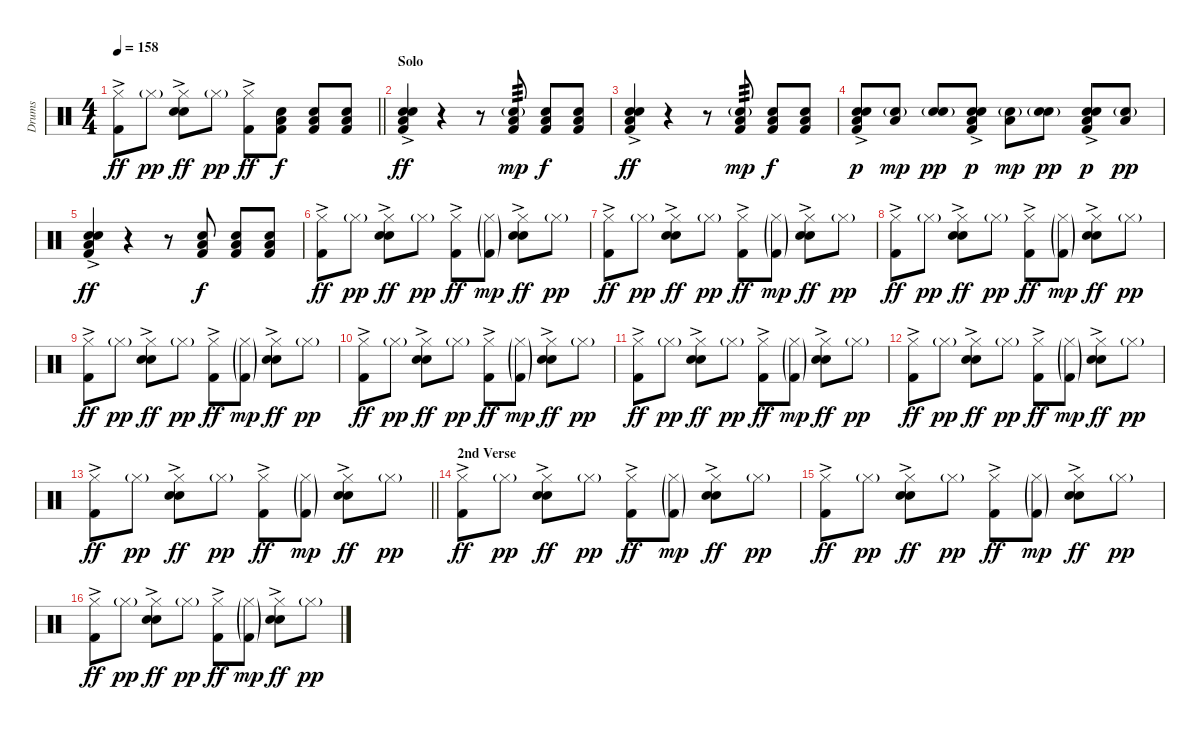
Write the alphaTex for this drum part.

\track ("Drums" "Drums") {instrument percussion}
\staff {score}
\articulation defaults
\ts (4 4)
\tempo 158
\clef neutral
\barLineRight lightlight
\ks c
("Hi-Hat (closed)" "Kick (hit) 2"{ac}).8{dy ff} "Hi-Hat (closed)"{g}.8{dy pp} ("Hi-Hat (closed)" "Electric Snare (hit)"{ac} "Snare (hit) 2").8{dy ff} "Hi-Hat (closed)"{g}.8{dy pp} ("Hi-Hat (closed)" "Kick (hit) 2"{ac}).8{dy ff} ("Low Floor Tom (hit)" "Snare (hit) 2" "Kick (hit) 2").8{dy f} ("Low Floor Tom (hit)" "Snare (hit) 2" "Kick (hit) 2").8 ("Low Floor Tom (hit)" "Snare (hit) 2" "Kick (hit) 2").8 |
\section ("" "Solo")
("Low Floor Tom (hit)" "Electric Snare (hit)"{ac} "Snare (hit) 2" "Kick (hit) 2").4{dy ff} r.4 r.8 ("Low Floor Tom (hit)" "Snare (hit) 2"{g} "Kick (hit) 2").8{tp 3 dy mp} ("Low Floor Tom (hit)" "Snare (hit) 2" "Kick (hit) 2").8{dy f} ("Low Floor Tom (hit)" "Snare (hit) 2" "Kick (hit) 2").8 |
("Low Floor Tom (hit)" "Electric Snare (hit)"{ac} "Snare (hit) 2" "Kick (hit) 2").4{dy ff} r.4 r.8 ("Low Floor Tom (hit)" "Snare (hit) 2"{g} "Kick (hit) 2").8{tp 3 dy mp} ("Low Floor Tom (hit)" "Snare (hit) 2" "Kick (hit) 2").8{dy f} ("Low Floor Tom (hit)" "Snare (hit) 2" "Kick (hit) 2").8 |
("Low Floor Tom (hit)" "Electric Snare (hit)" "Snare (hit) 2" "Kick (hit) 2"{ac}).8{dy p} ("Low Floor Tom (hit)" "Snare (hit) 2"{g}).8{dy mp} ("Electric Snare (hit)" "Snare (hit) 2"{g}).8{dy pp} ("Low Floor Tom (hit)" "Electric Snare (hit)" "Snare (hit) 2" "Kick (hit) 2"{ac}).8{dy p} ("Low Floor Tom (hit)" "Snare (hit) 2"{g}).8{dy mp} ("Electric Snare (hit)" "Snare (hit) 2"{g}).8{dy pp} ("Low Floor Tom (hit)" "Electric Snare (hit)" "Snare (hit) 2" "Kick (hit) 2"{ac}).8{dy p} ("Low Floor Tom (hit)" "Snare (hit) 2"{g}).8{dy pp} |
("Low Floor Tom (hit)" "Electric Snare (hit)"{ac} "Snare (hit) 2" "Kick (hit) 2").4{dy ff} r.4 r.8 ("Low Floor Tom (hit)" "Snare (hit) 2" "Kick (hit) 2").8{dy f} ("Low Floor Tom (hit)" "Snare (hit) 2" "Kick (hit) 2").8 ("Low Floor Tom (hit)" "Snare (hit) 2" "Kick (hit) 2").8 |
("Hi-Hat (closed)" "Kick (hit) 2"{ac}).8{dy ff} "Hi-Hat (closed)"{g}.8{dy pp} ("Hi-Hat (closed)" "Electric Snare (hit)"{ac} "Snare (hit) 2").8{dy ff} "Hi-Hat (closed)"{g}.8{dy pp} ("Hi-Hat (closed)" "Kick (hit) 2"{ac}).8{dy ff} ("Hi-Hat (closed)"{g} "Kick (hit) 2"{g}).8{dy mp} ("Hi-Hat (closed)" "Electric Snare (hit)"{ac} "Snare (hit) 2").8{dy ff} "Hi-Hat (closed)"{g}.8{dy pp} |
("Hi-Hat (closed)" "Kick (hit) 2"{ac}).8{dy ff} "Hi-Hat (closed)"{g}.8{dy pp} ("Hi-Hat (closed)" "Electric Snare (hit)"{ac} "Snare (hit) 2").8{dy ff} "Hi-Hat (closed)"{g}.8{dy pp} ("Hi-Hat (closed)" "Kick (hit) 2"{ac}).8{dy ff} ("Hi-Hat (closed)"{g} "Kick (hit) 2"{g}).8{dy mp} ("Hi-Hat (closed)" "Electric Snare (hit)"{ac} "Snare (hit) 2").8{dy ff} "Hi-Hat (closed)"{g}.8{dy pp} |
("Hi-Hat (closed)" "Kick (hit) 2"{ac}).8{dy ff} "Hi-Hat (closed)"{g}.8{dy pp} ("Hi-Hat (closed)" "Electric Snare (hit)"{ac} "Snare (hit) 2").8{dy ff} "Hi-Hat (closed)"{g}.8{dy pp} ("Hi-Hat (closed)" "Kick (hit) 2"{ac}).8{dy ff} ("Hi-Hat (closed)"{g} "Kick (hit) 2"{g}).8{dy mp} ("Hi-Hat (closed)" "Electric Snare (hit)"{ac} "Snare (hit) 2").8{dy ff} "Hi-Hat (closed)"{g}.8{dy pp} |
("Hi-Hat (closed)" "Kick (hit) 2"{ac}).8{dy ff} "Hi-Hat (closed)"{g}.8{dy pp} ("Hi-Hat (closed)" "Electric Snare (hit)"{ac} "Snare (hit) 2").8{dy ff} "Hi-Hat (closed)"{g}.8{dy pp} ("Hi-Hat (closed)" "Kick (hit) 2"{ac}).8{dy ff} ("Hi-Hat (closed)"{g} "Kick (hit) 2"{g}).8{dy mp} ("Hi-Hat (closed)" "Electric Snare (hit)"{ac} "Snare (hit) 2").8{dy ff} "Hi-Hat (closed)"{g}.8{dy pp} |
("Hi-Hat (closed)" "Kick (hit) 2"{ac}).8{dy ff} "Hi-Hat (closed)"{g}.8{dy pp} ("Hi-Hat (closed)" "Electric Snare (hit)"{ac} "Snare (hit) 2").8{dy ff} "Hi-Hat (closed)"{g}.8{dy pp} ("Hi-Hat (closed)" "Kick (hit) 2"{ac}).8{dy ff} ("Hi-Hat (closed)"{g} "Kick (hit) 2"{g}).8{dy mp} ("Hi-Hat (closed)" "Electric Snare (hit)"{ac} "Snare (hit) 2").8{dy ff} "Hi-Hat (closed)"{g}.8{dy pp} |
("Hi-Hat (closed)" "Kick (hit) 2"{ac}).8{dy ff} "Hi-Hat (closed)"{g}.8{dy pp} ("Hi-Hat (closed)" "Electric Snare (hit)"{ac} "Snare (hit) 2").8{dy ff} "Hi-Hat (closed)"{g}.8{dy pp} ("Hi-Hat (closed)" "Kick (hit) 2"{ac}).8{dy ff} ("Hi-Hat (closed)"{g} "Kick (hit) 2"{g}).8{dy mp} ("Hi-Hat (closed)" "Electric Snare (hit)"{ac} "Snare (hit) 2").8{dy ff} "Hi-Hat (closed)"{g}.8{dy pp} |
("Hi-Hat (closed)" "Kick (hit) 2"{ac}).8{dy ff} "Hi-Hat (closed)"{g}.8{dy pp} ("Hi-Hat (closed)" "Electric Snare (hit)"{ac} "Snare (hit) 2").8{dy ff} "Hi-Hat (closed)"{g}.8{dy pp} ("Hi-Hat (closed)" "Kick (hit) 2"{ac}).8{dy ff} ("Hi-Hat (closed)"{g} "Kick (hit) 2"{g}).8{dy mp} ("Hi-Hat (closed)" "Electric Snare (hit)"{ac} "Snare (hit) 2").8{dy ff} "Hi-Hat (closed)"{g}.8{dy pp} |
\barLineRight lightlight
("Hi-Hat (closed)" "Kick (hit) 2"{ac}).8{dy ff} "Hi-Hat (closed)"{g}.8{dy pp} ("Hi-Hat (closed)" "Electric Snare (hit)"{ac} "Snare (hit) 2").8{dy ff} "Hi-Hat (closed)"{g}.8{dy pp} ("Hi-Hat (closed)" "Kick (hit) 2"{ac}).8{dy ff} ("Hi-Hat (closed)"{g} "Kick (hit) 2"{g}).8{dy mp} ("Hi-Hat (closed)" "Electric Snare (hit)"{ac} "Snare (hit) 2").8{dy ff} "Hi-Hat (closed)"{g}.8{dy pp} |
\section ("" "2nd Verse")
("Hi-Hat (closed)" "Kick (hit) 2"{ac}).8{dy ff} "Hi-Hat (closed)"{g}.8{dy pp} ("Hi-Hat (closed)" "Electric Snare (hit)"{ac} "Snare (hit) 2").8{dy ff} "Hi-Hat (closed)"{g}.8{dy pp} ("Hi-Hat (closed)" "Kick (hit) 2"{ac}).8{dy ff} ("Hi-Hat (closed)"{g} "Kick (hit) 2"{g}).8{dy mp} ("Hi-Hat (closed)" "Electric Snare (hit)"{ac} "Snare (hit) 2").8{dy ff} "Hi-Hat (closed)"{g}.8{dy pp} |
("Hi-Hat (closed)" "Kick (hit) 2"{ac}).8{dy ff} "Hi-Hat (closed)"{g}.8{dy pp} ("Hi-Hat (closed)" "Electric Snare (hit)"{ac} "Snare (hit) 2").8{dy ff} "Hi-Hat (closed)"{g}.8{dy pp} ("Hi-Hat (closed)" "Kick (hit) 2"{ac}).8{dy ff} ("Hi-Hat (closed)"{g} "Kick (hit) 2"{g}).8{dy mp} ("Hi-Hat (closed)" "Electric Snare (hit)"{ac} "Snare (hit) 2").8{dy ff} "Hi-Hat (closed)"{g}.8{dy pp} |
("Hi-Hat (closed)" "Kick (hit) 2"{ac}).8{dy ff} "Hi-Hat (closed)"{g}.8{dy pp} ("Hi-Hat (closed)" "Electric Snare (hit)"{ac} "Snare (hit) 2").8{dy ff} "Hi-Hat (closed)"{g}.8{dy pp} ("Hi-Hat (closed)" "Kick (hit) 2"{ac}).8{dy ff} ("Hi-Hat (closed)"{g} "Kick (hit) 2"{g}).8{dy mp} ("Hi-Hat (closed)" "Electric Snare (hit)"{ac} "Snare (hit) 2").8{dy ff} "Hi-Hat (closed)"{g}.8{dy pp}
